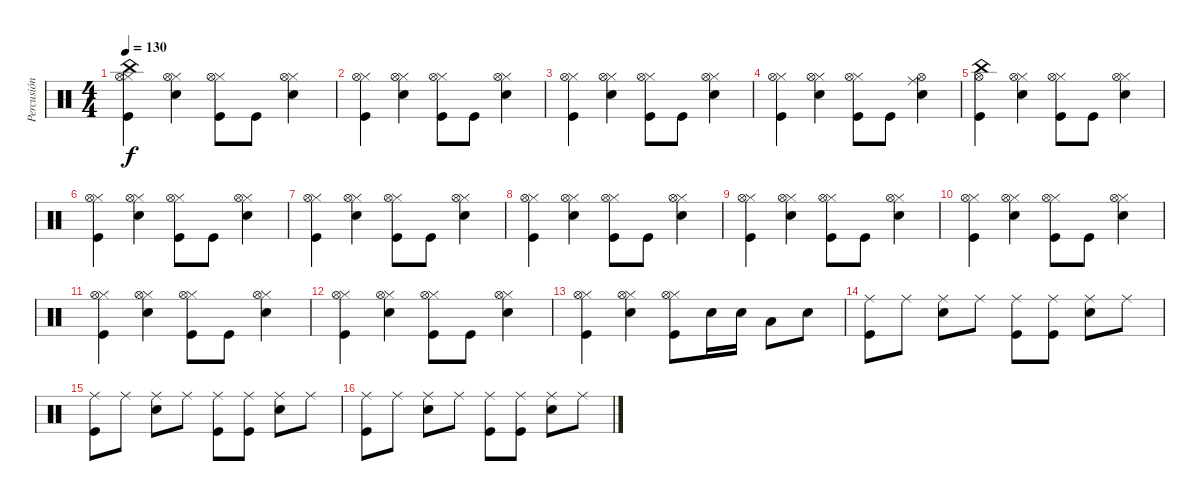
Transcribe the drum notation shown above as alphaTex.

\track ("Percusión" "Percusión") {instrument percussion}
\staff {score}
\articulation defaults
\ts (4 4)
\tempo 130
\clef neutral
\ks c
("Kick (hit)" "Hi-Hat (closed)" "Hi-Hat (open)" "China (hit)").4{dy f} ("Snare (hit) 2" "Hi-Hat (closed)" "Hi-Hat (open)").4 ("Kick (hit)" "Hi-Hat (closed)" "Hi-Hat (open)").8 "Kick (hit)".8 ("Snare (hit) 2" "Hi-Hat (closed)" "Hi-Hat (open)").4 |
("Kick (hit)" "Hi-Hat (closed)" "Hi-Hat (open)").4 ("Snare (hit) 2" "Hi-Hat (closed)" "Hi-Hat (open)").4 ("Kick (hit)" "Hi-Hat (closed)" "Hi-Hat (open)").8 "Kick (hit)".8 ("Snare (hit) 2" "Hi-Hat (closed)" "Hi-Hat (open)").4 |
("Kick (hit)" "Hi-Hat (closed)" "Hi-Hat (open)").4 ("Snare (hit) 2" "Hi-Hat (closed)" "Hi-Hat (open)").4 ("Kick (hit)" "Hi-Hat (closed)" "Hi-Hat (open)").8 "Kick (hit)".8 ("Snare (hit) 2" "Hi-Hat (closed)" "Hi-Hat (open)").4 |
("Kick (hit)" "Hi-Hat (closed)" "Hi-Hat (open)").4 ("Snare (hit) 2" "Hi-Hat (closed)" "Hi-Hat (open)").4 ("Kick (hit)" "Hi-Hat (closed)" "Hi-Hat (open)").8 "Kick (hit)".8 ("Snare (hit) 2" "Ride (middle)" "Hi-Hat (open)").4 |
("Kick (hit)" "China (hit)" "Hi-Hat (open)").4 ("Snare (hit) 2" "Hi-Hat (closed)" "Hi-Hat (open)").4 ("Kick (hit)" "Hi-Hat (closed)" "Hi-Hat (open)").8 "Kick (hit)".8 ("Snare (hit) 2" "Hi-Hat (closed)" "Hi-Hat (open)").4 |
("Kick (hit)" "Hi-Hat (closed)" "Hi-Hat (open)").4 ("Snare (hit) 2" "Hi-Hat (closed)" "Hi-Hat (open)").4 ("Kick (hit)" "Hi-Hat (closed)" "Hi-Hat (open)").8 "Kick (hit)".8 ("Snare (hit) 2" "Hi-Hat (closed)" "Hi-Hat (open)").4 |
("Kick (hit)" "Hi-Hat (closed)" "Hi-Hat (open)").4 ("Snare (hit) 2" "Hi-Hat (closed)" "Hi-Hat (open)").4 ("Kick (hit)" "Hi-Hat (closed)" "Hi-Hat (open)").8 "Kick (hit)".8 ("Snare (hit) 2" "Hi-Hat (closed)" "Hi-Hat (open)").4 |
("Kick (hit)" "Hi-Hat (closed)" "Hi-Hat (open)").4 ("Snare (hit) 2" "Hi-Hat (closed)" "Hi-Hat (open)").4 ("Kick (hit)" "Hi-Hat (closed)" "Hi-Hat (open)").8 "Kick (hit)".8 ("Snare (hit) 2" "Hi-Hat (closed)" "Hi-Hat (open)").4 |
("Kick (hit)" "Hi-Hat (closed)" "Hi-Hat (open)").4 ("Snare (hit) 2" "Hi-Hat (closed)" "Hi-Hat (open)").4 ("Kick (hit)" "Hi-Hat (closed)" "Hi-Hat (open)").8 "Kick (hit)".8 ("Snare (hit) 2" "Hi-Hat (closed)" "Hi-Hat (open)").4 |
("Kick (hit)" "Hi-Hat (closed)" "Hi-Hat (open)").4 ("Snare (hit) 2" "Hi-Hat (closed)" "Hi-Hat (open)").4 ("Kick (hit)" "Hi-Hat (closed)" "Hi-Hat (open)").8 "Kick (hit)".8 ("Snare (hit) 2" "Hi-Hat (closed)" "Hi-Hat (open)").4 |
("Kick (hit)" "Hi-Hat (closed)" "Hi-Hat (open)").4 ("Snare (hit) 2" "Hi-Hat (closed)" "Hi-Hat (open)").4 ("Kick (hit)" "Hi-Hat (closed)" "Hi-Hat (open)").8 "Kick (hit)".8 ("Snare (hit) 2" "Hi-Hat (closed)" "Hi-Hat (open)").4 |
("Kick (hit)" "Hi-Hat (closed)" "Hi-Hat (open)").4 ("Snare (hit) 2" "Hi-Hat (closed)" "Hi-Hat (open)").4 ("Kick (hit)" "Hi-Hat (closed)" "Hi-Hat (open)").8 "Kick (hit)".8 ("Snare (hit) 2" "Hi-Hat (closed)" "Hi-Hat (open)").4 |
("Kick (hit)" "Hi-Hat (closed)" "Hi-Hat (open)").4 ("Snare (hit) 2" "Hi-Hat (closed)" "Hi-Hat (open)").4 ("Kick (hit)" "Hi-Hat (closed)" "Hi-Hat (open)").8 "Snare (hit) 2".16 "Snare (hit) 2".16 "Low Tom (hit)".8 "Snare (hit) 2".8 |
("Kick (hit)" "Ride (middle)").8 "Ride (middle)".8 ("Ride (middle)" "Snare (hit) 2").8 "Ride (middle)".8 ("Ride (middle)" "Kick (hit)").8 ("Ride (middle)" "Kick (hit)").8 ("Ride (middle)" "Snare (hit) 2").8 "Ride (middle)".8 |
("Kick (hit)" "Ride (middle)").8 "Ride (middle)".8 ("Ride (middle)" "Snare (hit) 2").8 "Ride (middle)".8 ("Ride (middle)" "Kick (hit)").8 ("Ride (middle)" "Kick (hit)").8 ("Ride (middle)" "Snare (hit) 2").8 "Ride (middle)".8 |
("Kick (hit)" "Ride (middle)").8 "Ride (middle)".8 ("Ride (middle)" "Snare (hit) 2").8 "Ride (middle)".8 ("Ride (middle)" "Kick (hit)").8 ("Ride (middle)" "Kick (hit)").8 ("Ride (middle)" "Snare (hit) 2").8 "Ride (middle)".8
